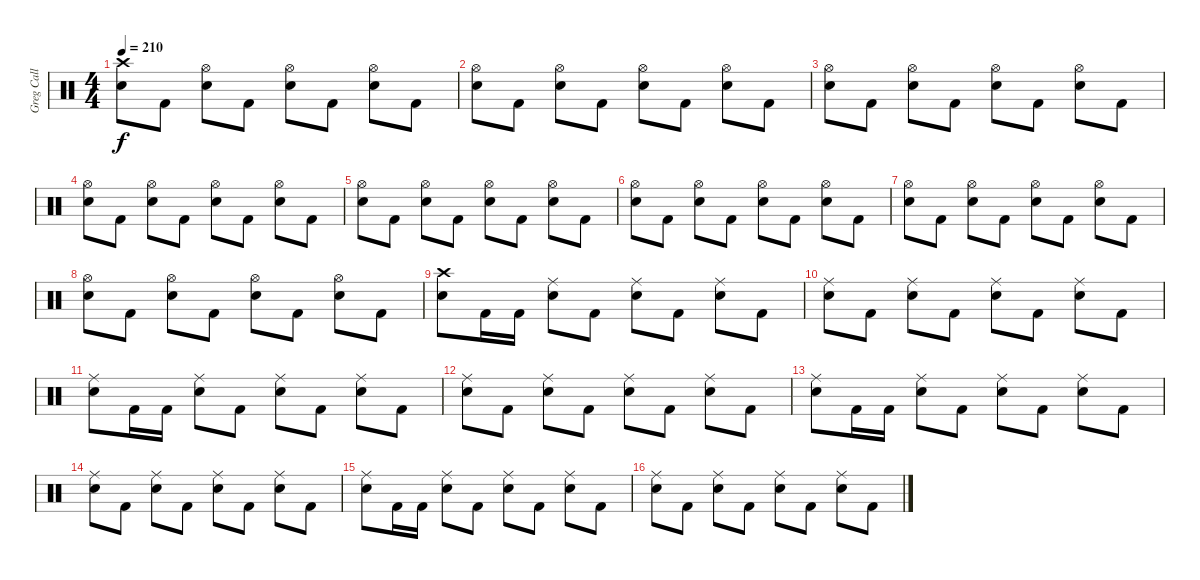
\track ("Greg Call (Drums)" "Greg Call ") {instrument percussion}
\staff {score}
\articulation defaults
\ts (4 4)
\tempo 210
\clef neutral
\ks c
("Crash high (hit)" "Electric Snare (hit)").8{dy f} "Kick (hit) 2".8 ("Hi-Hat (open)" "Electric Snare (hit)").8 "Kick (hit) 2".8 ("Hi-Hat (open)" "Electric Snare (hit)").8 "Kick (hit) 2".8 ("Hi-Hat (open)" "Electric Snare (hit)").8 "Kick (hit) 2".8 |
("Hi-Hat (open)" "Electric Snare (hit)").8 "Kick (hit) 2".8 ("Hi-Hat (open)" "Electric Snare (hit)").8 "Kick (hit) 2".8 ("Hi-Hat (open)" "Electric Snare (hit)").8 "Kick (hit) 2".8 ("Hi-Hat (open)" "Electric Snare (hit)").8 "Kick (hit) 2".8 |
("Hi-Hat (open)" "Electric Snare (hit)").8 "Kick (hit) 2".8 ("Hi-Hat (open)" "Electric Snare (hit)").8 "Kick (hit) 2".8 ("Hi-Hat (open)" "Electric Snare (hit)").8 "Kick (hit) 2".8 ("Hi-Hat (open)" "Electric Snare (hit)").8 "Kick (hit) 2".8 |
("Hi-Hat (open)" "Electric Snare (hit)").8 "Kick (hit) 2".8 ("Hi-Hat (open)" "Electric Snare (hit)").8 "Kick (hit) 2".8 ("Hi-Hat (open)" "Electric Snare (hit)").8 "Kick (hit) 2".8 ("Hi-Hat (open)" "Electric Snare (hit)").8 "Kick (hit) 2".8 |
("Hi-Hat (open)" "Electric Snare (hit)").8 "Kick (hit) 2".8 ("Hi-Hat (open)" "Electric Snare (hit)").8 "Kick (hit) 2".8 ("Hi-Hat (open)" "Electric Snare (hit)").8 "Kick (hit) 2".8 ("Hi-Hat (open)" "Electric Snare (hit)").8 "Kick (hit) 2".8 |
("Hi-Hat (open)" "Electric Snare (hit)").8 "Kick (hit) 2".8 ("Hi-Hat (open)" "Electric Snare (hit)").8 "Kick (hit) 2".8 ("Hi-Hat (open)" "Electric Snare (hit)").8 "Kick (hit) 2".8 ("Hi-Hat (open)" "Electric Snare (hit)").8 "Kick (hit) 2".8 |
("Hi-Hat (open)" "Electric Snare (hit)").8 "Kick (hit) 2".8 ("Hi-Hat (open)" "Electric Snare (hit)").8 "Kick (hit) 2".8 ("Hi-Hat (open)" "Electric Snare (hit)").8 "Kick (hit) 2".8 ("Hi-Hat (open)" "Electric Snare (hit)").8 "Kick (hit) 2".8 |
("Hi-Hat (open)" "Electric Snare (hit)").8 "Kick (hit) 2".8 ("Hi-Hat (open)" "Electric Snare (hit)").8 "Kick (hit) 2".8 ("Hi-Hat (open)" "Electric Snare (hit)").8 "Kick (hit) 2".8 ("Hi-Hat (open)" "Electric Snare (hit)").8 "Kick (hit) 2".8 |
("Crash high (hit)" "Electric Snare (hit)").8 "Kick (hit) 2".16 "Kick (hit) 2".16 ("Ride (middle)" "Electric Snare (hit)").8 "Kick (hit) 2".8 ("Ride (middle)" "Electric Snare (hit)").8 "Kick (hit) 2".8 ("Ride (middle)" "Electric Snare (hit)").8 "Kick (hit) 2".8 |
("Ride (middle)" "Electric Snare (hit)").8 "Kick (hit) 2".8 ("Ride (middle)" "Electric Snare (hit)").8 "Kick (hit) 2".8 ("Ride (middle)" "Electric Snare (hit)").8 "Kick (hit) 2".8 ("Ride (middle)" "Electric Snare (hit)").8 "Kick (hit) 2".8 |
("Ride (middle)" "Electric Snare (hit)").8 "Kick (hit) 2".16 "Kick (hit) 2".16 ("Ride (middle)" "Electric Snare (hit)").8 "Kick (hit) 2".8 ("Ride (middle)" "Electric Snare (hit)").8 "Kick (hit) 2".8 ("Ride (middle)" "Electric Snare (hit)").8 "Kick (hit) 2".8 |
("Ride (middle)" "Electric Snare (hit)").8 "Kick (hit) 2".8 ("Ride (middle)" "Electric Snare (hit)").8 "Kick (hit) 2".8 ("Ride (middle)" "Electric Snare (hit)").8 "Kick (hit) 2".8 ("Ride (middle)" "Electric Snare (hit)").8 "Kick (hit) 2".8 |
("Ride (middle)" "Electric Snare (hit)").8 "Kick (hit) 2".16 "Kick (hit) 2".16 ("Ride (middle)" "Electric Snare (hit)").8 "Kick (hit) 2".8 ("Ride (middle)" "Electric Snare (hit)").8 "Kick (hit) 2".8 ("Ride (middle)" "Electric Snare (hit)").8 "Kick (hit) 2".8 |
("Ride (middle)" "Electric Snare (hit)").8 "Kick (hit) 2".8 ("Ride (middle)" "Electric Snare (hit)").8 "Kick (hit) 2".8 ("Ride (middle)" "Electric Snare (hit)").8 "Kick (hit) 2".8 ("Ride (middle)" "Electric Snare (hit)").8 "Kick (hit) 2".8 |
("Ride (middle)" "Electric Snare (hit)").8 "Kick (hit) 2".16 "Kick (hit) 2".16 ("Ride (middle)" "Electric Snare (hit)").8 "Kick (hit) 2".8 ("Ride (middle)" "Electric Snare (hit)").8 "Kick (hit) 2".8 ("Ride (middle)" "Electric Snare (hit)").8 "Kick (hit) 2".8 |
("Ride (middle)" "Electric Snare (hit)").8 "Kick (hit) 2".8 ("Ride (middle)" "Electric Snare (hit)").8 "Kick (hit) 2".8 ("Ride (middle)" "Electric Snare (hit)").8{volume 10} "Kick (hit) 2".8 ("Ride (middle)" "Electric Snare (hit)").8 "Kick (hit) 2".8
